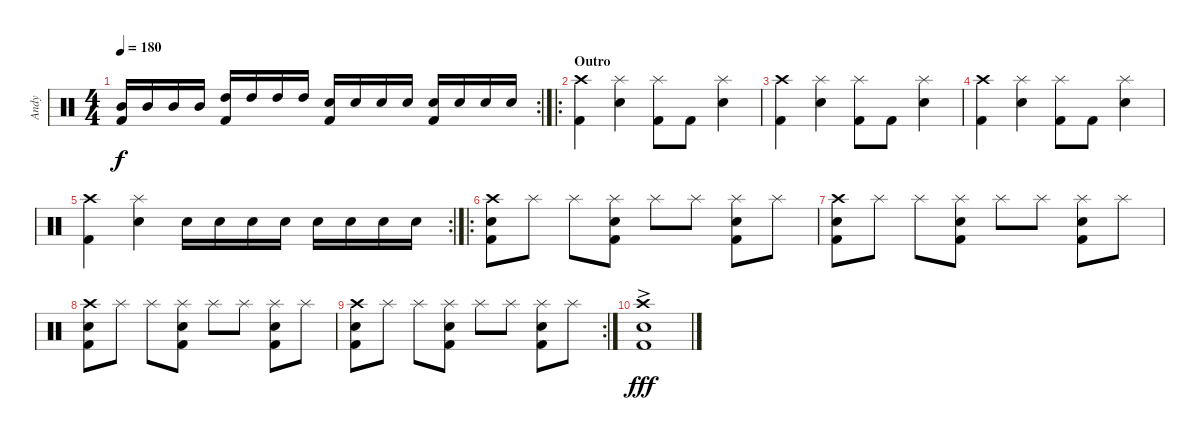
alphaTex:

\track ("Andy" "Andy") {instrument percussion}
\staff {score}
\articulation defaults
\rc 2
\ts (4 4)
\tempo 180
\clef neutral
\ks c
("Mid Tom (hit)" "Kick (hit) 2").16{dy f} "Mid Tom (hit)".16 "Mid Tom (hit)".16 "Mid Tom (hit)".16 ("High Tom (hit)" "Kick (hit) 2").16 "High Tom (hit)".16 "High Tom (hit)".16 "High Tom (hit)".16 ("Snare (hit) 2" "Kick (hit) 2").16 "Snare (hit) 2".16 "Snare (hit) 2".16 "Snare (hit) 2".16 ("Snare (hit) 2" "Kick (hit) 2").16 "Snare (hit) 2".16 "Snare (hit) 2".16 "Snare (hit) 2".16 |
\ro
\section ("" "Outro")
("Crash high (hit)" "Kick (hit) 2").4 ("Splash (hit)" "Snare (hit) 2").4 ("Splash (hit)" "Kick (hit) 2").8 "Kick (hit) 2".8 ("Splash (hit)" "Snare (hit) 2").4 |
("Crash high (hit)" "Kick (hit) 2").4 ("Splash (hit)" "Snare (hit) 2").4 ("Splash (hit)" "Kick (hit) 2").8 "Kick (hit) 2".8 ("Splash (hit)" "Snare (hit) 2").4 |
("Crash high (hit)" "Kick (hit) 2").4 ("Splash (hit)" "Snare (hit) 2").4 ("Splash (hit)" "Kick (hit) 2").8 "Kick (hit) 2".8 ("Splash (hit)" "Snare (hit) 2").4 |
\rc 2
("Crash high (hit)" "Kick (hit) 2").4 ("Splash (hit)" "Snare (hit) 2").4 "Snare (hit) 2".16 "Snare (hit) 2".16 "Snare (hit) 2".16 "Snare (hit) 2".16 "Snare (hit) 2".16 "Snare (hit) 2".16 "Snare (hit) 2".16 "Snare (hit) 2".16 |
\ro
("Crash high (hit)" "Snare (hit) 2" "Kick (hit) 2").8 "Splash (hit)".8 "Splash (hit)".8 ("Splash (hit)" "Snare (hit) 2" "Kick (hit) 2").8 "Splash (hit)".8 "Splash (hit)".8 ("Splash (hit)" "Snare (hit) 2" "Kick (hit) 2").8 "Splash (hit)".8 |
("Crash high (hit)" "Snare (hit) 2" "Kick (hit) 2").8 "Splash (hit)".8 "Splash (hit)".8 ("Splash (hit)" "Snare (hit) 2" "Kick (hit) 2").8 "Splash (hit)".8 "Splash (hit)".8 ("Splash (hit)" "Snare (hit) 2" "Kick (hit) 2").8 "Splash (hit)".8 |
("Crash high (hit)" "Snare (hit) 2" "Kick (hit) 2").8 "Splash (hit)".8 "Splash (hit)".8 ("Splash (hit)" "Snare (hit) 2" "Kick (hit) 2").8 "Splash (hit)".8 "Splash (hit)".8 ("Splash (hit)" "Snare (hit) 2" "Kick (hit) 2").8 "Splash (hit)".8 |
\rc 2
("Crash high (hit)" "Snare (hit) 2" "Kick (hit) 2").8 "Splash (hit)".8 "Splash (hit)".8 ("Splash (hit)" "Snare (hit) 2" "Kick (hit) 2").8 "Splash (hit)".8 "Splash (hit)".8 ("Splash (hit)" "Snare (hit) 2" "Kick (hit) 2").8 "Splash (hit)".8 |
("Crash high (hit)"{ac} "Snare (hit) 2"{ac} "Kick (hit) 2"{ac}).1{dy fff}
